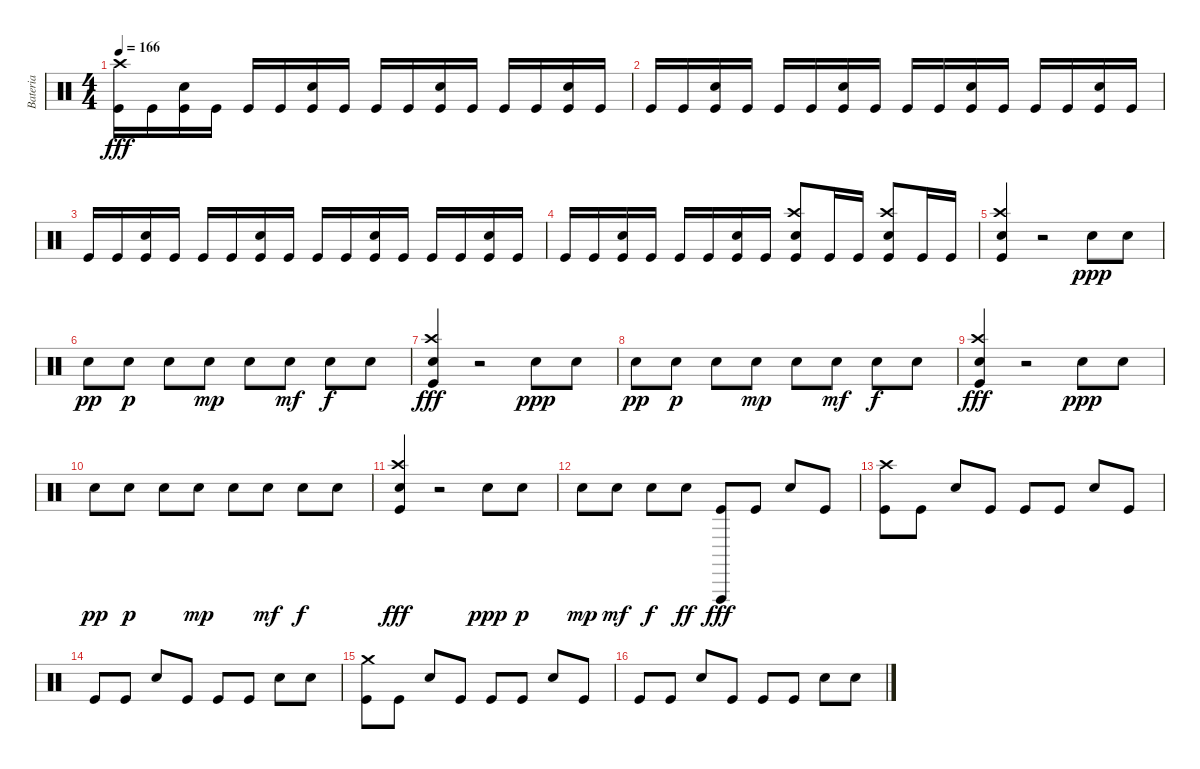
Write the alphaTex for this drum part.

\track ("Bateria" "Bateria") {instrument percussion}
\staff {score}
\articulation defaults
\ts (4 4)
\tempo 166
\clef neutral
\ks c
("Kick (hit)" "Crash high (hit)").16{dy fff} "Kick (hit)".16 ("Snare (hit) 2" "Kick (hit)").16 "Kick (hit)".16 "Kick (hit)".16 "Kick (hit)".16 ("Snare (hit) 2" "Kick (hit)").16 "Kick (hit)".16 "Kick (hit)".16 "Kick (hit)".16 ("Snare (hit) 2" "Kick (hit)").16 "Kick (hit)".16 "Kick (hit)".16 "Kick (hit)".16 ("Snare (hit) 2" "Kick (hit)").16 "Kick (hit)".16 |
"Kick (hit)".16 "Kick (hit)".16 ("Snare (hit) 2" "Kick (hit)").16 "Kick (hit)".16 "Kick (hit)".16 "Kick (hit)".16 ("Snare (hit) 2" "Kick (hit)").16 "Kick (hit)".16 "Kick (hit)".16 "Kick (hit)".16 ("Snare (hit) 2" "Kick (hit)").16 "Kick (hit)".16 "Kick (hit)".16 "Kick (hit)".16 ("Snare (hit) 2" "Kick (hit)").16 "Kick (hit)".16 |
"Kick (hit)".16 "Kick (hit)".16 ("Snare (hit) 2" "Kick (hit)").16 "Kick (hit)".16 "Kick (hit)".16 "Kick (hit)".16 ("Snare (hit) 2" "Kick (hit)").16 "Kick (hit)".16 "Kick (hit)".16 "Kick (hit)".16 ("Snare (hit) 2" "Kick (hit)").16 "Kick (hit)".16 "Kick (hit)".16 "Kick (hit)".16 ("Snare (hit) 2" "Kick (hit)").16 "Kick (hit)".16 |
"Kick (hit)".16 "Kick (hit)".16 ("Snare (hit) 2" "Kick (hit)").16 "Kick (hit)".16 "Kick (hit)".16 "Kick (hit)".16 ("Kick (hit)" "Snare (hit) 2").16 "Kick (hit)".16 ("Crash high (hit)" "Snare (hit) 2" "Kick (hit)").8 "Kick (hit)".16 "Kick (hit)".16 ("Crash high (hit)" "Snare (hit) 2" "Kick (hit)").8 "Kick (hit)".16 "Kick (hit)".16 |
("Kick (hit)" "Crash high (hit)" "Snare (hit) 2").4 r.2 "Snare (hit) 2".8{dy ppp} "Snare (hit) 2".8 |
"Snare (hit) 2".8{dy pp} "Snare (hit) 2".8{dy p} "Snare (hit) 2".8 "Snare (hit) 2".8{dy mp} "Snare (hit) 2".8 "Snare (hit) 2".8{dy mf} "Snare (hit) 2".8{dy f} "Snare (hit) 2".8 |
("Kick (hit)" "Crash high (hit)" "Snare (hit) 2").4{dy fff} r.2 "Snare (hit) 2".8{dy ppp} "Snare (hit) 2".8 |
"Snare (hit) 2".8{dy pp} "Snare (hit) 2".8{dy p} "Snare (hit) 2".8 "Snare (hit) 2".8{dy mp} "Snare (hit) 2".8 "Snare (hit) 2".8{dy mf} "Snare (hit) 2".8{dy f} "Snare (hit) 2".8 |
("Kick (hit)" "Crash high (hit)" "Snare (hit) 2").4{dy fff} r.2 "Snare (hit) 2".8{dy ppp} "Snare (hit) 2".8 |
"Snare (hit) 2".8{dy pp} "Snare (hit) 2".8{dy p} "Snare (hit) 2".8 "Snare (hit) 2".8{dy mp} "Snare (hit) 2".8 "Snare (hit) 2".8{dy mf} "Snare (hit) 2".8{dy f} "Snare (hit) 2".8 |
("Kick (hit)" "Crash high (hit)" "Snare (hit) 2").4{dy fff} r.2 "Snare (hit) 2".8{dy ppp} "Snare (hit) 2".8{dy p} |
"Snare (hit) 2".8{dy mp} "Snare (hit) 2".8{dy mf} "Snare (hit) 2".8{dy f} "Snare (hit) 2".8{dy ff} ("Vibraslap (hit)" "Kick (hit)").8{dy fff} "Kick (hit)".8 "Snare (hit) 2".8 "Kick (hit)".8 |
("Kick (hit)" "Crash high (hit)").8 "Kick (hit)".8 "Snare (hit) 2".8 "Kick (hit)".8 "Kick (hit)".8 "Kick (hit)".8 "Snare (hit) 2".8 "Kick (hit)".8 |
"Kick (hit)".8 "Kick (hit)".8 "Snare (hit) 2".8 "Kick (hit)".8 "Kick (hit)".8 "Kick (hit)".8 "Snare (hit) 2".8 "Snare (hit) 2".8 |
("Kick (hit)" "Crash medium (hit)").8 "Kick (hit)".8 "Snare (hit) 2".8 "Kick (hit)".8 "Kick (hit)".8 "Kick (hit)".8 "Snare (hit) 2".8 "Kick (hit)".8 |
"Kick (hit)".8 "Kick (hit)".8 "Snare (hit) 2".8 "Kick (hit)".8 "Kick (hit)".8 "Kick (hit)".8 "Snare (hit) 2".8 "Snare (hit) 2".8
